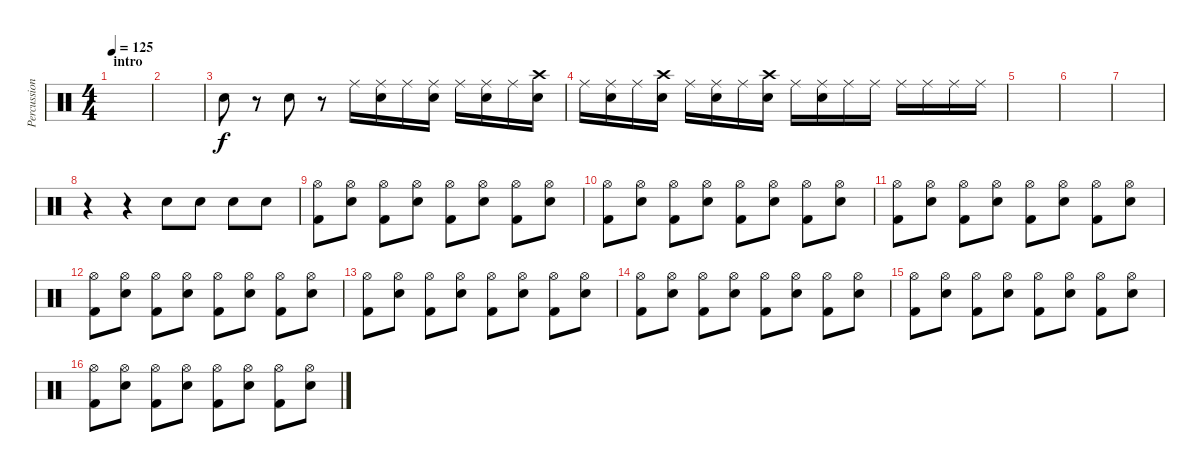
\track ("Percussion" "Percussion") {instrument percussion}
\staff {score}
\articulation defaults
\ts (4 4)
\section ("" "intro")
\tempo 125
\clef neutral
\ks c
|
|
"Snare (hit) 2".8 r.8 "Snare (hit) 2".8 r.8 "Ride (middle)".16 ("Ride (middle)" "Snare (hit) 2").16 "Ride (middle)".16 ("Ride (middle)" "Snare (hit) 2").16 "Ride (middle)".16 ("Ride (middle)" "Snare (hit) 2").16 "Ride (middle)".16 ("Crash high (hit)" "Snare (hit) 2").16 |
"Ride (middle)".16 ("Ride (middle)" "Snare (hit) 2").16 "Ride (middle)".16 ("Crash high (hit)" "Snare (hit) 2").16 "Ride (middle)".16 ("Ride (middle)" "Snare (hit) 2").16 "Ride (middle)".16 ("Crash high (hit)" "Snare (hit) 2").16 "Ride (middle)".16 ("Ride (middle)" "Snare (hit) 2").16 "Ride (middle)".16 "Ride (middle)".16 "Ride (middle)".16 "Ride (middle)".16 "Ride (middle)".16 "Ride (middle)".16 |
|
|
|
r.4 r.4 "Snare (hit) 2".8 "Snare (hit) 2".8 "Snare (hit) 2".8 "Snare (hit) 2".8 |
("Hi-Hat (open)" "Kick (hit) 2").8 ("Snare (hit) 2" "Hi-Hat (open)").8 ("Hi-Hat (open)" "Kick (hit) 2").8 ("Snare (hit) 2" "Hi-Hat (open)").8 ("Hi-Hat (open)" "Kick (hit) 2").8 ("Snare (hit) 2" "Hi-Hat (open)").8 ("Hi-Hat (open)" "Kick (hit) 2").8 ("Snare (hit) 2" "Hi-Hat (open)").8 |
("Hi-Hat (open)" "Kick (hit) 2").8 ("Snare (hit) 2" "Hi-Hat (open)").8 ("Hi-Hat (open)" "Kick (hit) 2").8 ("Snare (hit) 2" "Hi-Hat (open)").8 ("Hi-Hat (open)" "Kick (hit) 2").8 ("Snare (hit) 2" "Hi-Hat (open)").8 ("Hi-Hat (open)" "Kick (hit) 2").8 ("Snare (hit) 2" "Hi-Hat (open)").8 |
("Hi-Hat (open)" "Kick (hit) 2").8 ("Snare (hit) 2" "Hi-Hat (open)").8 ("Hi-Hat (open)" "Kick (hit) 2").8 ("Snare (hit) 2" "Hi-Hat (open)").8 ("Hi-Hat (open)" "Kick (hit) 2").8 ("Snare (hit) 2" "Hi-Hat (open)").8 ("Hi-Hat (open)" "Kick (hit) 2").8 ("Snare (hit) 2" "Hi-Hat (open)").8 |
("Hi-Hat (open)" "Kick (hit) 2").8 ("Snare (hit) 2" "Hi-Hat (open)").8 ("Hi-Hat (open)" "Kick (hit) 2").8 ("Snare (hit) 2" "Hi-Hat (open)").8 ("Hi-Hat (open)" "Kick (hit) 2").8 ("Snare (hit) 2" "Hi-Hat (open)").8 ("Hi-Hat (open)" "Kick (hit) 2").8 ("Snare (hit) 2" "Hi-Hat (open)").8 |
("Hi-Hat (open)" "Kick (hit) 2").8 ("Snare (hit) 2" "Hi-Hat (open)").8 ("Hi-Hat (open)" "Kick (hit) 2").8 ("Snare (hit) 2" "Hi-Hat (open)").8 ("Hi-Hat (open)" "Kick (hit) 2").8 ("Snare (hit) 2" "Hi-Hat (open)").8 ("Hi-Hat (open)" "Kick (hit) 2").8 ("Snare (hit) 2" "Hi-Hat (open)").8 |
("Hi-Hat (open)" "Kick (hit) 2").8 ("Snare (hit) 2" "Hi-Hat (open)").8 ("Hi-Hat (open)" "Kick (hit) 2").8 ("Snare (hit) 2" "Hi-Hat (open)").8 ("Hi-Hat (open)" "Kick (hit) 2").8 ("Snare (hit) 2" "Hi-Hat (open)").8 ("Hi-Hat (open)" "Kick (hit) 2").8 ("Snare (hit) 2" "Hi-Hat (open)").8 |
("Hi-Hat (open)" "Kick (hit) 2").8 ("Snare (hit) 2" "Hi-Hat (open)").8 ("Hi-Hat (open)" "Kick (hit) 2").8 ("Snare (hit) 2" "Hi-Hat (open)").8 ("Hi-Hat (open)" "Kick (hit) 2").8 ("Snare (hit) 2" "Hi-Hat (open)").8 ("Hi-Hat (open)" "Kick (hit) 2").8 ("Snare (hit) 2" "Hi-Hat (open)").8 |
("Hi-Hat (open)" "Kick (hit) 2").8 ("Snare (hit) 2" "Hi-Hat (open)").8 ("Hi-Hat (open)" "Kick (hit) 2").8 ("Snare (hit) 2" "Hi-Hat (open)").8 ("Hi-Hat (open)" "Kick (hit) 2").8 ("Snare (hit) 2" "Hi-Hat (open)").8 ("Hi-Hat (open)" "Kick (hit) 2").8 ("Snare (hit) 2" "Hi-Hat (open)").8
